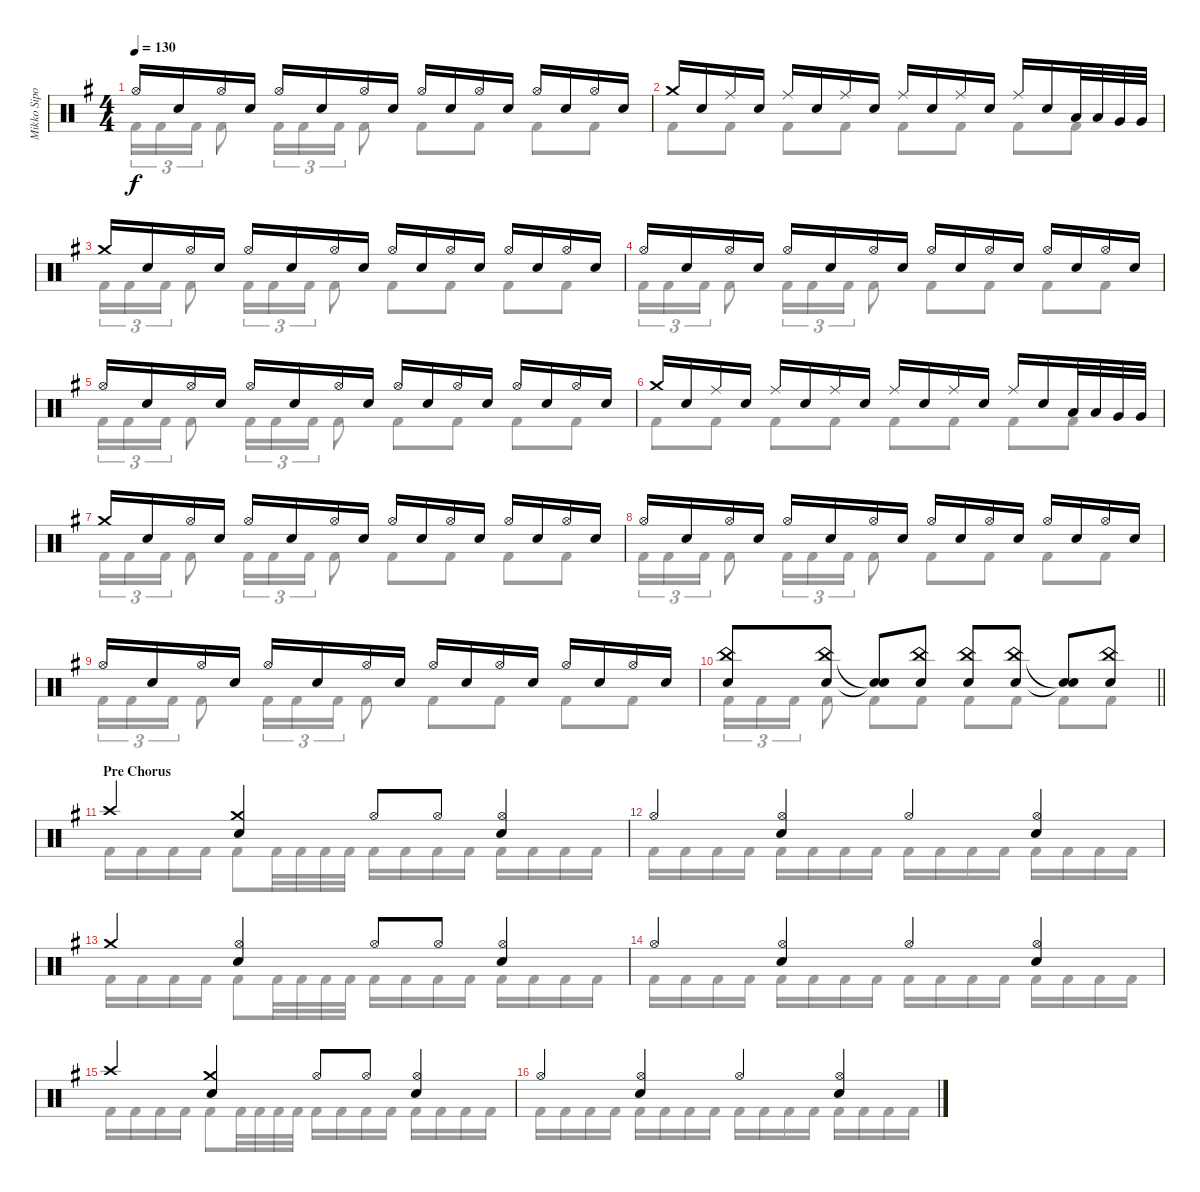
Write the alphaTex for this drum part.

\track ("Mikko Sipola (drums)" "Mikko Sipo") {instrument percussion}
\staff {score}
\articulation defaults
\voice
\ts (4 4)
\tempo 130
\clef neutral
\ks eminor "Hi-Hat (open)".16{dy f} "Electric Snare (hit)".16 "Hi-Hat (open)".16 "Electric Snare (hit)".16 "Hi-Hat (open)".16 "Electric Snare (hit)".16 "Hi-Hat (open)".16 "Electric Snare (hit)".16 "Hi-Hat (open)".16 "Electric Snare (hit)".16 "Hi-Hat (open)".16 "Electric Snare (hit)".16 "Hi-Hat (open)".16 "Electric Snare (hit)".16 "Hi-Hat (open)".16 "Electric Snare (hit)".16
|
"Crash medium (hit)".16 "Electric Snare (hit)".16 "Ride (middle)".16 "Electric Snare (hit)".16 "Ride (middle)".16 "Electric Snare (hit)".16 "Ride (middle)".16 "Electric Snare (hit)".16 "Ride (middle)".16 "Electric Snare (hit)".16 "Ride (middle)".16 "Electric Snare (hit)".16 "Ride (middle)".16 "Electric Snare (hit)".16 "Low Tom (hit)".32 "Low Tom (hit)".32 "Very Low Tom (hit)".32 "Very Low Tom (hit)".32 |
"Crash medium (hit)".16 "Electric Snare (hit)".16 "Hi-Hat (open)".16 "Electric Snare (hit)".16 "Hi-Hat (open)".16 "Electric Snare (hit)".16 "Hi-Hat (open)".16 "Electric Snare (hit)".16 "Hi-Hat (open)".16 "Electric Snare (hit)".16 "Hi-Hat (open)".16 "Electric Snare (hit)".16 "Hi-Hat (open)".16 "Electric Snare (hit)".16 "Hi-Hat (open)".16 "Electric Snare (hit)".16 |
"Hi-Hat (open)".16 "Electric Snare (hit)".16 "Hi-Hat (open)".16 "Electric Snare (hit)".16 "Hi-Hat (open)".16 "Electric Snare (hit)".16 "Hi-Hat (open)".16 "Electric Snare (hit)".16 "Hi-Hat (open)".16 "Electric Snare (hit)".16 "Hi-Hat (open)".16 "Electric Snare (hit)".16 "Hi-Hat (open)".16 "Electric Snare (hit)".16 "Hi-Hat (open)".16 "Electric Snare (hit)".16 |
"Hi-Hat (open)".16 "Electric Snare (hit)".16 "Hi-Hat (open)".16 "Electric Snare (hit)".16 "Hi-Hat (open)".16 "Electric Snare (hit)".16 "Hi-Hat (open)".16 "Electric Snare (hit)".16 "Hi-Hat (open)".16 "Electric Snare (hit)".16 "Hi-Hat (open)".16 "Electric Snare (hit)".16 "Hi-Hat (open)".16 "Electric Snare (hit)".16 "Hi-Hat (open)".16 "Electric Snare (hit)".16 |
"Crash medium (hit)".16 "Electric Snare (hit)".16 "Ride (middle)".16 "Electric Snare (hit)".16 "Ride (middle)".16 "Electric Snare (hit)".16 "Ride (middle)".16 "Electric Snare (hit)".16 "Ride (middle)".16 "Electric Snare (hit)".16 "Ride (middle)".16 "Electric Snare (hit)".16 "Ride (middle)".16 "Electric Snare (hit)".16 "Low Tom (hit)".32 "Low Tom (hit)".32 "Very Low Tom (hit)".32 "Very Low Tom (hit)".32 |
"Crash medium (hit)".16 "Electric Snare (hit)".16 "Hi-Hat (open)".16 "Electric Snare (hit)".16 "Hi-Hat (open)".16 "Electric Snare (hit)".16 "Hi-Hat (open)".16 "Electric Snare (hit)".16 "Hi-Hat (open)".16 "Electric Snare (hit)".16 "Hi-Hat (open)".16 "Electric Snare (hit)".16 "Hi-Hat (open)".16 "Electric Snare (hit)".16 "Hi-Hat (open)".16 "Electric Snare (hit)".16 |
"Hi-Hat (open)".16 "Electric Snare (hit)".16 "Hi-Hat (open)".16 "Electric Snare (hit)".16 "Hi-Hat (open)".16 "Electric Snare (hit)".16 "Hi-Hat (open)".16 "Electric Snare (hit)".16 "Hi-Hat (open)".16 "Electric Snare (hit)".16 "Hi-Hat (open)".16 "Electric Snare (hit)".16 "Hi-Hat (open)".16 "Electric Snare (hit)".16 "Hi-Hat (open)".16 "Electric Snare (hit)".16 |
"Hi-Hat (open)".16 "Electric Snare (hit)".16 "Hi-Hat (open)".16 "Electric Snare (hit)".16 "Hi-Hat (open)".16 "Electric Snare (hit)".16 "Hi-Hat (open)".16 "Electric Snare (hit)".16 "Hi-Hat (open)".16 "Electric Snare (hit)".16 "Hi-Hat (open)".16 "Electric Snare (hit)".16 "Hi-Hat (open)".16 "Electric Snare (hit)".16 "Hi-Hat (open)".16 "Electric Snare (hit)".16 |
\barLineRight lightlight
("Electric Snare (hit)" "China (hit)").8 ("Electric Snare (hit)" "China (hit)").8 ("Electric Snare (hit)"{t} "Snare (hit)"{t}).8 ("Electric Snare (hit)" "China (hit)").8 ("Electric Snare (hit)" "China (hit)").8 ("Electric Snare (hit)" "China (hit)").8 ("Electric Snare (hit)"{t} "Snare (hit)"{t}).8 ("Electric Snare (hit)" "China (hit)").8 |
\section ("" "Pre Chorus")
"Crash high (hit)".4 ("Crash medium (hit)" "Electric Snare (hit)").4 "Hi-Hat (open)".8 "Hi-Hat (open)".8 ("Hi-Hat (open)" "Electric Snare (hit)").4 |
"Hi-Hat (open)".4 ("Hi-Hat (open)" "Electric Snare (hit)").4 "Hi-Hat (open)".4 ("Hi-Hat (open)" "Electric Snare (hit)").4 |
"Crash medium (hit)".4 ("Hi-Hat (open)" "Electric Snare (hit)").4 "Hi-Hat (open)".8 "Hi-Hat (open)".8 ("Hi-Hat (open)" "Electric Snare (hit)").4 |
"Hi-Hat (open)".4 ("Hi-Hat (open)" "Electric Snare (hit)").4 "Hi-Hat (open)".4 ("Hi-Hat (open)" "Electric Snare (hit)").4 |
"Crash high (hit)".4 ("Crash medium (hit)" "Electric Snare (hit)").4 "Hi-Hat (open)".8 "Hi-Hat (open)".8 ("Hi-Hat (open)" "Electric Snare (hit)").4 |
"Hi-Hat (open)".4 ("Hi-Hat (open)" "Electric Snare (hit)").4 "Hi-Hat (open)".4 ("Hi-Hat (open)" "Electric Snare (hit)").4
\voice
\clef neutral
\ottava regular
\simile none
\ks eminor "Kick (hit) 2".16{tu (3 2) dy f} "Kick (hit) 2".16{tu (3 2)} "Kick (hit) 2".16{tu (3 2)} "Kick (hit) 2".8 "Kick (hit) 2".16{tu (3 2)} "Kick (hit) 2".16{tu (3 2)} "Kick (hit) 2".16{tu (3 2)} "Kick (hit) 2".8 "Kick (hit) 2".8 "Kick (hit) 2".8 "Kick (hit) 2".8 "Kick (hit) 2".8
|
"Kick (hit) 2".8 "Kick (hit) 2".8 "Kick (hit) 2".8 "Kick (hit) 2".8 "Kick (hit) 2".8 "Kick (hit) 2".8 "Kick (hit) 2".8 "Kick (hit) 2".8 |
"Kick (hit) 2".16{tu (3 2)} "Kick (hit) 2".16{tu (3 2)} "Kick (hit) 2".16{tu (3 2)} "Kick (hit) 2".8 "Kick (hit) 2".16{tu (3 2)} "Kick (hit) 2".16{tu (3 2)} "Kick (hit) 2".16{tu (3 2)} "Kick (hit) 2".8 "Kick (hit) 2".8 "Kick (hit) 2".8 "Kick (hit) 2".8 "Kick (hit) 2".8 |
"Kick (hit) 2".16{tu (3 2)} "Kick (hit) 2".16{tu (3 2)} "Kick (hit) 2".16{tu (3 2)} "Kick (hit) 2".8 "Kick (hit) 2".16{tu (3 2)} "Kick (hit) 2".16{tu (3 2)} "Kick (hit) 2".16{tu (3 2)} "Kick (hit) 2".8 "Kick (hit) 2".8 "Kick (hit) 2".8 "Kick (hit) 2".8 "Kick (hit) 2".8 |
"Kick (hit) 2".16{tu (3 2)} "Kick (hit) 2".16{tu (3 2)} "Kick (hit) 2".16{tu (3 2)} "Kick (hit) 2".8 "Kick (hit) 2".16{tu (3 2)} "Kick (hit) 2".16{tu (3 2)} "Kick (hit) 2".16{tu (3 2)} "Kick (hit) 2".8 "Kick (hit) 2".8 "Kick (hit) 2".8 "Kick (hit) 2".8 "Kick (hit) 2".8 |
"Kick (hit) 2".8 "Kick (hit) 2".8 "Kick (hit) 2".8 "Kick (hit) 2".8 "Kick (hit) 2".8 "Kick (hit) 2".8 "Kick (hit) 2".8 "Kick (hit) 2".8 |
"Kick (hit) 2".16{tu (3 2)} "Kick (hit) 2".16{tu (3 2)} "Kick (hit) 2".16{tu (3 2)} "Kick (hit) 2".8 "Kick (hit) 2".16{tu (3 2)} "Kick (hit) 2".16{tu (3 2)} "Kick (hit) 2".16{tu (3 2)} "Kick (hit) 2".8 "Kick (hit) 2".8 "Kick (hit) 2".8 "Kick (hit) 2".8 "Kick (hit) 2".8 |
"Kick (hit) 2".16{tu (3 2)} "Kick (hit) 2".16{tu (3 2)} "Kick (hit) 2".16{tu (3 2)} "Kick (hit) 2".8 "Kick (hit) 2".16{tu (3 2)} "Kick (hit) 2".16{tu (3 2)} "Kick (hit) 2".16{tu (3 2)} "Kick (hit) 2".8 "Kick (hit) 2".8 "Kick (hit) 2".8 "Kick (hit) 2".8 "Kick (hit) 2".8 |
"Kick (hit) 2".16{tu (3 2)} "Kick (hit) 2".16{tu (3 2)} "Kick (hit) 2".16{tu (3 2)} "Kick (hit) 2".8 "Kick (hit) 2".16{tu (3 2)} "Kick (hit) 2".16{tu (3 2)} "Kick (hit) 2".16{tu (3 2)} "Kick (hit) 2".8 "Kick (hit) 2".8 "Kick (hit) 2".8 "Kick (hit) 2".8 "Kick (hit) 2".8 |
\barLineRight lightlight "Kick (hit) 2".16{tu (3 2)} "Kick (hit) 2".16{tu (3 2)} "Kick (hit) 2".16{tu (3 2)} "Kick (hit) 2".8 "Kick (hit) 2".8 "Kick (hit) 2".8 "Kick (hit) 2".8 "Kick (hit) 2".8 "Kick (hit) 2".8 "Kick (hit) 2".8
|
"Kick (hit) 2".16 "Kick (hit) 2".16 "Kick (hit) 2".16 "Kick (hit) 2".16 "Kick (hit) 2".8 "Kick (hit) 2".32 "Kick (hit) 2".32 "Kick (hit) 2".32 "Kick (hit) 2".32 "Kick (hit) 2".16 "Kick (hit) 2".16 "Kick (hit) 2".16 "Kick (hit) 2".16 "Kick (hit) 2".16 "Kick (hit) 2".16 "Kick (hit) 2".16 "Kick (hit) 2".16 |
"Kick (hit) 2".16 "Kick (hit) 2".16 "Kick (hit) 2".16 "Kick (hit) 2".16 "Kick (hit) 2".16 "Kick (hit) 2".16 "Kick (hit) 2".16 "Kick (hit) 2".16 "Kick (hit) 2".16 "Kick (hit) 2".16 "Kick (hit) 2".16 "Kick (hit) 2".16 "Kick (hit) 2".16 "Kick (hit) 2".16 "Kick (hit) 2".16 "Kick (hit) 2".16 |
"Kick (hit) 2".16 "Kick (hit) 2".16 "Kick (hit) 2".16 "Kick (hit) 2".16 "Kick (hit) 2".8 "Kick (hit) 2".32 "Kick (hit) 2".32 "Kick (hit) 2".32 "Kick (hit) 2".32 "Kick (hit) 2".16 "Kick (hit) 2".16 "Kick (hit) 2".16 "Kick (hit) 2".16 "Kick (hit) 2".16 "Kick (hit) 2".16 "Kick (hit) 2".16 "Kick (hit) 2".16 |
"Kick (hit) 2".16 "Kick (hit) 2".16 "Kick (hit) 2".16 "Kick (hit) 2".16 "Kick (hit) 2".16 "Kick (hit) 2".16 "Kick (hit) 2".16 "Kick (hit) 2".16 "Kick (hit) 2".16 "Kick (hit) 2".16 "Kick (hit) 2".16 "Kick (hit) 2".16 "Kick (hit) 2".16 "Kick (hit) 2".16 "Kick (hit) 2".16 "Kick (hit) 2".16 |
"Kick (hit) 2".16 "Kick (hit) 2".16 "Kick (hit) 2".16 "Kick (hit) 2".16 "Kick (hit) 2".8 "Kick (hit) 2".32 "Kick (hit) 2".32 "Kick (hit) 2".32 "Kick (hit) 2".32 "Kick (hit) 2".16 "Kick (hit) 2".16 "Kick (hit) 2".16 "Kick (hit) 2".16 "Kick (hit) 2".16 "Kick (hit) 2".16 "Kick (hit) 2".16 "Kick (hit) 2".16 |
"Kick (hit) 2".16 "Kick (hit) 2".16 "Kick (hit) 2".16 "Kick (hit) 2".16 "Kick (hit) 2".16 "Kick (hit) 2".16 "Kick (hit) 2".16 "Kick (hit) 2".16 "Kick (hit) 2".16 "Kick (hit) 2".16 "Kick (hit) 2".16 "Kick (hit) 2".16 "Kick (hit) 2".16 "Kick (hit) 2".16 "Kick (hit) 2".16 "Kick (hit) 2".16
